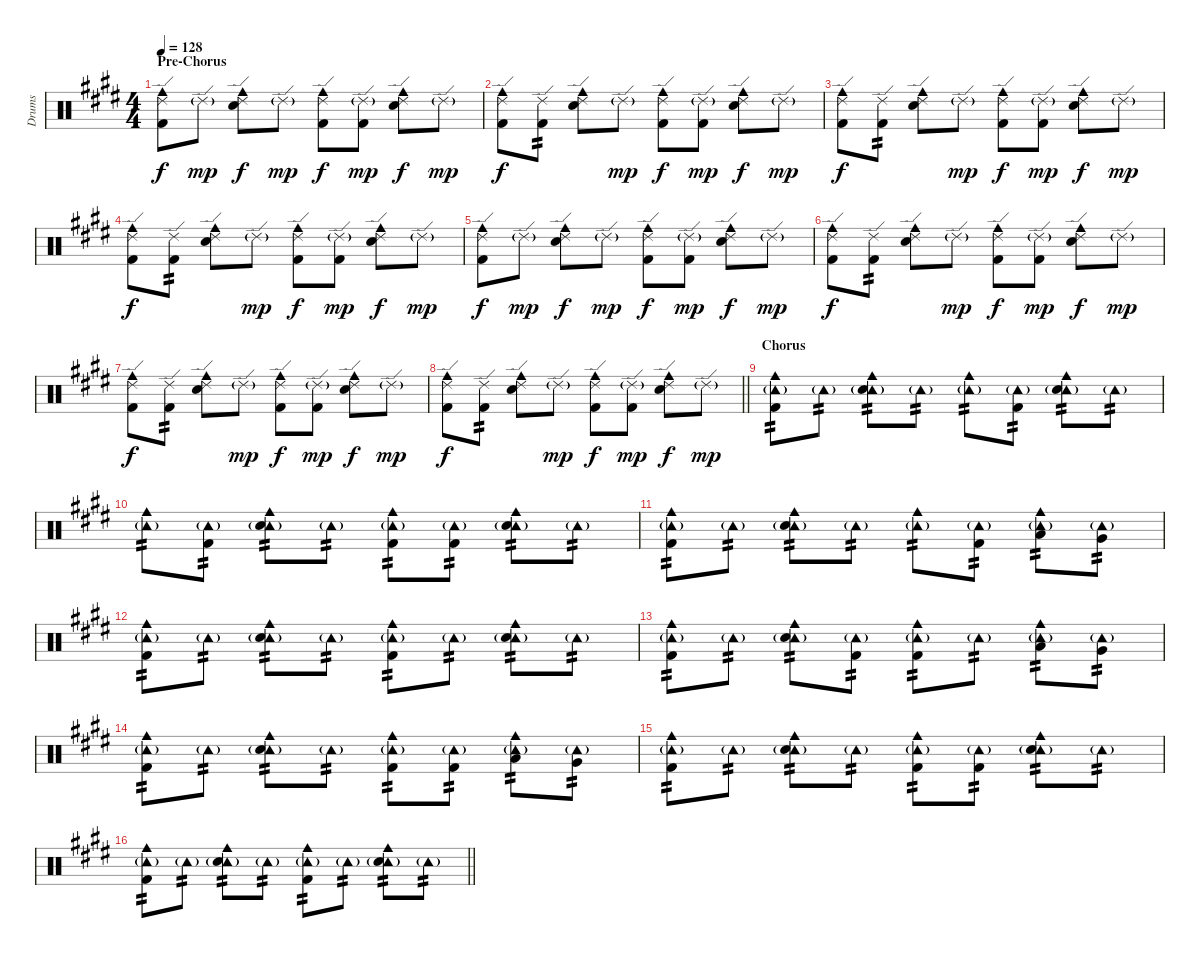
\track ("Drums" "Drums") {instrument percussion}
\staff {score}
\articulation defaults
\ts (4 4)
\section ("" "Pre-Chorus")
\tempo 128
\clef neutral
\ks c#minor
("Cowbell medium (hit)" "Ride (edge) 2" "Kick (hit) 2").8{dy f} "Ride (edge) 2"{g}.8{dy mp} ("Cowbell medium (hit)" "Ride (edge) 2" "Snare (hit) 2").8{dy f} "Ride (edge) 2"{g}.8{dy mp} ("Cowbell medium (hit)" "Ride (edge) 2" "Kick (hit) 2").8{dy f} ("Ride (edge) 2"{g} "Kick (hit) 2").8{dy mp} ("Cowbell medium (hit)" "Ride (edge) 2" "Snare (hit) 2").8{dy f} "Ride (edge) 2"{g}.8{dy mp} |
("Cowbell medium (hit)" "Ride (edge) 2" "Kick (hit) 2").8{dy f} ("Ride (edge) 2" "Kick (hit) 2").8{tp 2} ("Cowbell medium (hit)" "Ride (edge) 2" "Snare (hit) 2").8 "Ride (edge) 2"{g}.8{dy mp} ("Cowbell medium (hit)" "Ride (edge) 2" "Kick (hit) 2").8{dy f} ("Ride (edge) 2"{g} "Kick (hit) 2").8{dy mp} ("Cowbell medium (hit)" "Ride (edge) 2" "Snare (hit) 2").8{dy f} "Ride (edge) 2"{g}.8{dy mp} |
("Cowbell medium (hit)" "Ride (edge) 2" "Kick (hit) 2").8{dy f} ("Ride (edge) 2" "Kick (hit) 2").8{tp 2} ("Cowbell medium (hit)" "Ride (edge) 2" "Snare (hit) 2").8 "Ride (edge) 2"{g}.8{dy mp} ("Cowbell medium (hit)" "Ride (edge) 2" "Kick (hit) 2").8{dy f} ("Ride (edge) 2"{g} "Kick (hit) 2").8{dy mp} ("Cowbell medium (hit)" "Ride (edge) 2" "Snare (hit) 2").8{dy f} "Ride (edge) 2"{g}.8{dy mp} |
("Cowbell medium (hit)" "Ride (edge) 2" "Kick (hit) 2").8{dy f} ("Ride (edge) 2" "Kick (hit) 2").8{tp 2} ("Cowbell medium (hit)" "Ride (edge) 2" "Snare (hit) 2").8 "Ride (edge) 2"{g}.8{dy mp} ("Cowbell medium (hit)" "Ride (edge) 2" "Kick (hit) 2").8{dy f} ("Ride (edge) 2"{g} "Kick (hit) 2").8{dy mp} ("Cowbell medium (hit)" "Ride (edge) 2" "Snare (hit) 2").8{dy f} "Ride (edge) 2"{g}.8{dy mp} |
("Cowbell medium (hit)" "Ride (edge) 2" "Kick (hit) 2").8{dy f} "Ride (edge) 2"{g}.8{dy mp} ("Cowbell medium (hit)" "Ride (edge) 2" "Snare (hit) 2").8{dy f} "Ride (edge) 2"{g}.8{dy mp} ("Cowbell medium (hit)" "Ride (edge) 2" "Kick (hit) 2").8{dy f} ("Ride (edge) 2"{g} "Kick (hit) 2").8{dy mp} ("Cowbell medium (hit)" "Ride (edge) 2" "Snare (hit) 2").8{dy f} "Ride (edge) 2"{g}.8{dy mp} |
("Cowbell medium (hit)" "Ride (edge) 2" "Kick (hit) 2").8{dy f} ("Ride (edge) 2" "Kick (hit) 2").8{tp 2} ("Cowbell medium (hit)" "Ride (edge) 2" "Snare (hit) 2").8 "Ride (edge) 2"{g}.8{dy mp} ("Cowbell medium (hit)" "Ride (edge) 2" "Kick (hit) 2").8{dy f} ("Ride (edge) 2"{g} "Kick (hit) 2").8{dy mp} ("Cowbell medium (hit)" "Ride (edge) 2" "Snare (hit) 2").8{dy f} "Ride (edge) 2"{g}.8{dy mp} |
("Cowbell medium (hit)" "Ride (edge) 2" "Kick (hit) 2").8{dy f} ("Ride (edge) 2" "Kick (hit) 2").8{tp 2} ("Cowbell medium (hit)" "Ride (edge) 2" "Snare (hit) 2").8 "Ride (edge) 2"{g}.8{dy mp} ("Cowbell medium (hit)" "Ride (edge) 2" "Kick (hit) 2").8{dy f} ("Ride (edge) 2"{g} "Kick (hit) 2").8{dy mp} ("Cowbell medium (hit)" "Ride (edge) 2" "Snare (hit) 2").8{dy f} "Ride (edge) 2"{g}.8{dy mp} |
\barLineRight lightlight
("Cowbell medium (hit)" "Ride (edge) 2" "Kick (hit) 2").8{dy f} ("Ride (edge) 2" "Kick (hit) 2").8{tp 2} ("Cowbell medium (hit)" "Ride (edge) 2" "Snare (hit) 2").8 "Ride (edge) 2"{g}.8{dy mp} ("Cowbell medium (hit)" "Ride (edge) 2" "Kick (hit) 2").8{dy f} ("Ride (edge) 2"{g} "Kick (hit) 2").8{dy mp} ("Cowbell medium (hit)" "Ride (edge) 2" "Snare (hit) 2").8{dy f} "Ride (edge) 2"{g}.8{dy mp} |
\section ("" "Chorus")
("Cowbell medium (hit)" "Tambourine (hit)"{g} "Kick (hit) 2").8{tp 2} "Tambourine (hit)"{g}.8{tp 2} ("Cowbell medium (hit)" "Tambourine (hit)"{g} "Snare (hit) 2").8{tp 2} "Tambourine (hit)"{g}.8{tp 2} ("Cowbell medium (hit)" "Tambourine (hit)"{g}).8{tp 2} ("Tambourine (hit)"{g} "Kick (hit) 2").8{tp 2} ("Cowbell medium (hit)" "Tambourine (hit)"{g} "Snare (hit) 2").8{tp 2} "Tambourine (hit)"{g}.8{tp 2} |
\ks e
("Cowbell medium (hit)" "Tambourine (hit)"{g}).8{tp 2} ("Tambourine (hit)"{g} "Kick (hit) 2").8{tp 2} ("Cowbell medium (hit)" "Tambourine (hit)"{g} "Snare (hit) 2").8{tp 2} "Tambourine (hit)"{g}.8{tp 2} ("Cowbell medium (hit)" "Tambourine (hit)"{g} "Kick (hit) 2").8{tp 2} ("Tambourine (hit)"{g} "Kick (hit) 2").8{tp 2} ("Cowbell medium (hit)" "Tambourine (hit)"{g} "Snare (hit) 2").8{tp 2} "Tambourine (hit)"{g}.8{tp 2} |
\ks c#minor
("Cowbell medium (hit)" "Tambourine (hit)"{g} "Kick (hit) 2").8{tp 2} "Tambourine (hit)"{g}.8{tp 2} ("Cowbell medium (hit)" "Tambourine (hit)"{g} "Snare (hit) 2").8{tp 2} "Tambourine (hit)"{g}.8{tp 2} ("Cowbell medium (hit)" "Tambourine (hit)"{g}).8{tp 2} ("Tambourine (hit)"{g} "Kick (hit) 2").8{tp 2} ("Cowbell medium (hit)" "Tambourine (hit)"{g} "Low Tom (hit)").8{tp 2} ("Tambourine (hit)"{g} "Very Low Tom (hit)").8{tp 2} |
("Cowbell medium (hit)" "Tambourine (hit)"{g} "Kick (hit) 2").8{tp 2} "Tambourine (hit)"{g}.8{tp 2} ("Cowbell medium (hit)" "Tambourine (hit)"{g} "Snare (hit) 2").8{tp 2} "Tambourine (hit)"{g}.8{tp 2} ("Cowbell medium (hit)" "Tambourine (hit)"{g} "Kick (hit) 2").8{tp 2} "Tambourine (hit)"{g}.8{tp 2} ("Cowbell medium (hit)" "Tambourine (hit)"{g} "Snare (hit) 2").8{tp 2} "Tambourine (hit)"{g}.8{tp 2} |
("Cowbell medium (hit)" "Tambourine (hit)"{g} "Kick (hit) 2").8{tp 2} "Tambourine (hit)"{g}.8{tp 2} ("Cowbell medium (hit)" "Tambourine (hit)"{g} "Snare (hit) 2").8{tp 2} ("Tambourine (hit)"{g} "Kick (hit) 2").8{tp 2} ("Cowbell medium (hit)" "Tambourine (hit)"{g} "Kick (hit) 2").8{tp 2} "Tambourine (hit)"{g}.8{tp 2} ("Cowbell medium (hit)" "Tambourine (hit)"{g} "Low Tom (hit)").8{tp 2} ("Tambourine (hit)"{g} "Very Low Tom (hit)").8{tp 2} |
\ks e
("Cowbell medium (hit)" "Tambourine (hit)"{g} "Kick (hit) 2").8{tp 2} "Tambourine (hit)"{g}.8{tp 2} ("Cowbell medium (hit)" "Tambourine (hit)"{g} "Snare (hit) 2").8{tp 2} "Tambourine (hit)"{g}.8{tp 2} ("Cowbell medium (hit)" "Tambourine (hit)"{g} "Kick (hit) 2").8{tp 2} ("Tambourine (hit)"{g} "Kick (hit) 2").8{tp 2} ("Cowbell medium (hit)" "Tambourine (hit)"{g} "Low Tom (hit)").8{tp 2} ("Tambourine (hit)"{g} "Very Low Tom (hit)").8{tp 2} |
\ks c#minor
("Cowbell medium (hit)" "Tambourine (hit)"{g} "Kick (hit) 2").8{tp 2} "Tambourine (hit)"{g}.8{tp 2} ("Cowbell medium (hit)" "Tambourine (hit)"{g} "Snare (hit) 2").8{tp 2} "Tambourine (hit)"{g}.8{tp 2} ("Cowbell medium (hit)" "Tambourine (hit)"{g} "Kick (hit) 2").8{tp 2} ("Tambourine (hit)"{g} "Kick (hit) 2").8{tp 2} ("Cowbell medium (hit)" "Tambourine (hit)"{g} "Snare (hit) 2").8{tp 2} "Tambourine (hit)"{g}.8{tp 2} |
\barLineRight lightlight
("Cowbell medium (hit)" "Tambourine (hit)"{g} "Kick (hit) 2").8{tp 2} "Tambourine (hit)"{g}.8{tp 2} ("Cowbell medium (hit)" "Tambourine (hit)"{g} "Snare (hit) 2").8{tp 2} "Tambourine (hit)"{g}.8{tp 2} ("Cowbell medium (hit)" "Tambourine (hit)"{g} "Kick (hit) 2").8{tp 2} "Tambourine (hit)"{g}.8{tp 2} ("Cowbell medium (hit)" "Tambourine (hit)"{g} "Snare (hit) 2").8{tp 2} "Tambourine (hit)"{g}.8{tp 2}
